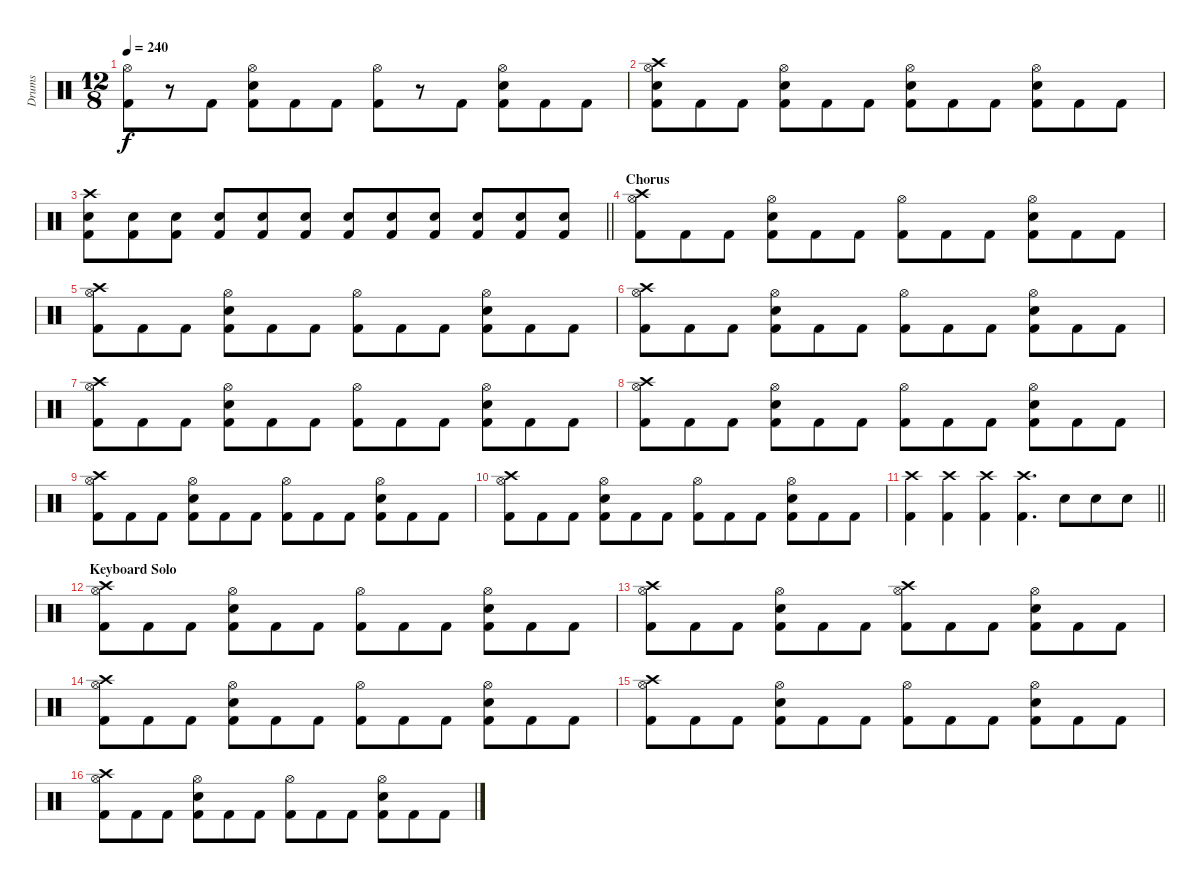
\track ("Drums" "Drums") {instrument percussion}
\staff {score}
\articulation defaults
\ts (12 8)
\tempo 240
\clef neutral
\ks c
("Hi-Hat (open)" "Kick (hit) 2").8{dy f} r.8 "Kick (hit) 2".8 ("Hi-Hat (open)" "Snare (hit) 2" "Kick (hit) 2").8 "Kick (hit) 2".8 "Kick (hit) 2".8 ("Hi-Hat (open)" "Kick (hit) 2").8 r.8 "Kick (hit) 2".8 ("Hi-Hat (open)" "Snare (hit) 2" "Kick (hit) 2").8 "Kick (hit) 2".8 "Kick (hit) 2".8 |
("Crash high (hit)" "Hi-Hat (open)" "Snare (hit) 2" "Kick (hit) 2").8 "Kick (hit) 2".8 "Kick (hit) 2".8 ("Hi-Hat (open)" "Snare (hit) 2" "Kick (hit) 2").8 "Kick (hit) 2".8 "Kick (hit) 2".8 ("Hi-Hat (open)" "Snare (hit) 2" "Kick (hit) 2").8 "Kick (hit) 2".8 "Kick (hit) 2".8 ("Hi-Hat (open)" "Snare (hit) 2" "Kick (hit) 2").8 "Kick (hit) 2".8 "Kick (hit) 2".8 |
\barLineRight lightlight
("Crash high (hit)" "Snare (hit) 2" "Kick (hit) 2").8 ("Snare (hit) 2" "Kick (hit) 2").8 ("Snare (hit) 2" "Kick (hit) 2").8 ("Snare (hit) 2" "Kick (hit) 2").8 ("Snare (hit) 2" "Kick (hit) 2").8 ("Snare (hit) 2" "Kick (hit) 2").8 ("Snare (hit) 2" "Kick (hit) 2").8 ("Snare (hit) 2" "Kick (hit) 2").8 ("Snare (hit) 2" "Kick (hit) 2").8 ("Snare (hit) 2" "Kick (hit) 2").8 ("Snare (hit) 2" "Kick (hit) 2").8 ("Snare (hit) 2" "Kick (hit) 2").8 |
\section ("" "Chorus")
("Crash high (hit)" "Hi-Hat (open)" "Kick (hit) 2").8 "Kick (hit) 2".8 "Kick (hit) 2".8 ("Hi-Hat (open)" "Snare (hit) 2" "Kick (hit) 2").8 "Kick (hit) 2".8 "Kick (hit) 2".8 ("Hi-Hat (open)" "Kick (hit) 2").8 "Kick (hit) 2".8 "Kick (hit) 2".8 ("Hi-Hat (open)" "Snare (hit) 2" "Kick (hit) 2").8 "Kick (hit) 2".8 "Kick (hit) 2".8 |
("Crash high (hit)" "Hi-Hat (open)" "Kick (hit) 2").8 "Kick (hit) 2".8 "Kick (hit) 2".8 ("Hi-Hat (open)" "Snare (hit) 2" "Kick (hit) 2").8 "Kick (hit) 2".8 "Kick (hit) 2".8 ("Hi-Hat (open)" "Kick (hit) 2").8 "Kick (hit) 2".8 "Kick (hit) 2".8 ("Hi-Hat (open)" "Snare (hit) 2" "Kick (hit) 2").8 "Kick (hit) 2".8 "Kick (hit) 2".8 |
("Crash high (hit)" "Hi-Hat (open)" "Kick (hit) 2").8 "Kick (hit) 2".8 "Kick (hit) 2".8 ("Hi-Hat (open)" "Snare (hit) 2" "Kick (hit) 2").8 "Kick (hit) 2".8 "Kick (hit) 2".8 ("Hi-Hat (open)" "Kick (hit) 2").8 "Kick (hit) 2".8 "Kick (hit) 2".8 ("Hi-Hat (open)" "Snare (hit) 2" "Kick (hit) 2").8 "Kick (hit) 2".8 "Kick (hit) 2".8 |
("Crash high (hit)" "Hi-Hat (open)" "Kick (hit) 2").8 "Kick (hit) 2".8 "Kick (hit) 2".8 ("Hi-Hat (open)" "Snare (hit) 2" "Kick (hit) 2").8 "Kick (hit) 2".8 "Kick (hit) 2".8 ("Hi-Hat (open)" "Kick (hit) 2").8 "Kick (hit) 2".8 "Kick (hit) 2".8 ("Hi-Hat (open)" "Snare (hit) 2" "Kick (hit) 2").8 "Kick (hit) 2".8 "Kick (hit) 2".8 |
("Crash high (hit)" "Hi-Hat (open)" "Kick (hit) 2").8 "Kick (hit) 2".8 "Kick (hit) 2".8 ("Hi-Hat (open)" "Snare (hit) 2" "Kick (hit) 2").8 "Kick (hit) 2".8 "Kick (hit) 2".8 ("Hi-Hat (open)" "Kick (hit) 2").8 "Kick (hit) 2".8 "Kick (hit) 2".8 ("Hi-Hat (open)" "Snare (hit) 2" "Kick (hit) 2").8 "Kick (hit) 2".8 "Kick (hit) 2".8 |
("Crash high (hit)" "Hi-Hat (open)" "Kick (hit) 2").8 "Kick (hit) 2".8 "Kick (hit) 2".8 ("Hi-Hat (open)" "Snare (hit) 2" "Kick (hit) 2").8 "Kick (hit) 2".8 "Kick (hit) 2".8 ("Hi-Hat (open)" "Kick (hit) 2").8 "Kick (hit) 2".8 "Kick (hit) 2".8 ("Hi-Hat (open)" "Snare (hit) 2" "Kick (hit) 2").8 "Kick (hit) 2".8 "Kick (hit) 2".8 |
("Crash high (hit)" "Hi-Hat (open)" "Kick (hit) 2").8 "Kick (hit) 2".8 "Kick (hit) 2".8 ("Hi-Hat (open)" "Snare (hit) 2" "Kick (hit) 2").8 "Kick (hit) 2".8 "Kick (hit) 2".8 ("Hi-Hat (open)" "Kick (hit) 2").8 "Kick (hit) 2".8 "Kick (hit) 2".8 ("Hi-Hat (open)" "Snare (hit) 2" "Kick (hit) 2").8 "Kick (hit) 2".8 "Kick (hit) 2".8 |
\barLineRight lightlight
("Crash high (hit)" "Kick (hit) 2").4 ("Crash high (hit)" "Kick (hit) 2").4 ("Crash high (hit)" "Kick (hit) 2").4 ("Crash high (hit)" "Kick (hit) 2").4{d} "Snare (hit) 2".8 "Snare (hit) 2".8 "Snare (hit) 2".8 |
\section ("" "Keyboard Solo")
("Crash high (hit)" "Hi-Hat (open)" "Kick (hit) 2").8 "Kick (hit) 2".8 "Kick (hit) 2".8 ("Hi-Hat (open)" "Snare (hit) 2" "Kick (hit) 2").8 "Kick (hit) 2".8 "Kick (hit) 2".8 ("Hi-Hat (open)" "Kick (hit) 2").8 "Kick (hit) 2".8 "Kick (hit) 2".8 ("Hi-Hat (open)" "Snare (hit) 2" "Kick (hit) 2").8 "Kick (hit) 2".8 "Kick (hit) 2".8 |
("Crash high (hit)" "Hi-Hat (open)" "Kick (hit) 2").8 "Kick (hit) 2".8 "Kick (hit) 2".8 ("Hi-Hat (open)" "Snare (hit) 2" "Kick (hit) 2").8 "Kick (hit) 2".8 "Kick (hit) 2".8 ("Crash high (hit)" "Hi-Hat (open)" "Kick (hit) 2").8 "Kick (hit) 2".8 "Kick (hit) 2".8 ("Hi-Hat (open)" "Snare (hit) 2" "Kick (hit) 2").8 "Kick (hit) 2".8 "Kick (hit) 2".8 |
("Crash high (hit)" "Hi-Hat (open)" "Kick (hit) 2").8 "Kick (hit) 2".8 "Kick (hit) 2".8 ("Hi-Hat (open)" "Snare (hit) 2" "Kick (hit) 2").8 "Kick (hit) 2".8 "Kick (hit) 2".8 ("Hi-Hat (open)" "Kick (hit) 2").8 "Kick (hit) 2".8 "Kick (hit) 2".8 ("Hi-Hat (open)" "Snare (hit) 2" "Kick (hit) 2").8 "Kick (hit) 2".8 "Kick (hit) 2".8 |
("Crash high (hit)" "Hi-Hat (open)" "Kick (hit) 2").8 "Kick (hit) 2".8 "Kick (hit) 2".8 ("Hi-Hat (open)" "Snare (hit) 2" "Kick (hit) 2").8 "Kick (hit) 2".8 "Kick (hit) 2".8 ("Hi-Hat (open)" "Kick (hit) 2").8 "Kick (hit) 2".8 "Kick (hit) 2".8 ("Hi-Hat (open)" "Snare (hit) 2" "Kick (hit) 2").8 "Kick (hit) 2".8 "Kick (hit) 2".8 |
("Crash high (hit)" "Hi-Hat (open)" "Kick (hit) 2").8 "Kick (hit) 2".8 "Kick (hit) 2".8 ("Hi-Hat (open)" "Snare (hit) 2" "Kick (hit) 2").8 "Kick (hit) 2".8 "Kick (hit) 2".8 ("Hi-Hat (open)" "Kick (hit) 2").8 "Kick (hit) 2".8 "Kick (hit) 2".8 ("Hi-Hat (open)" "Snare (hit) 2" "Kick (hit) 2").8 "Kick (hit) 2".8 "Kick (hit) 2".8
